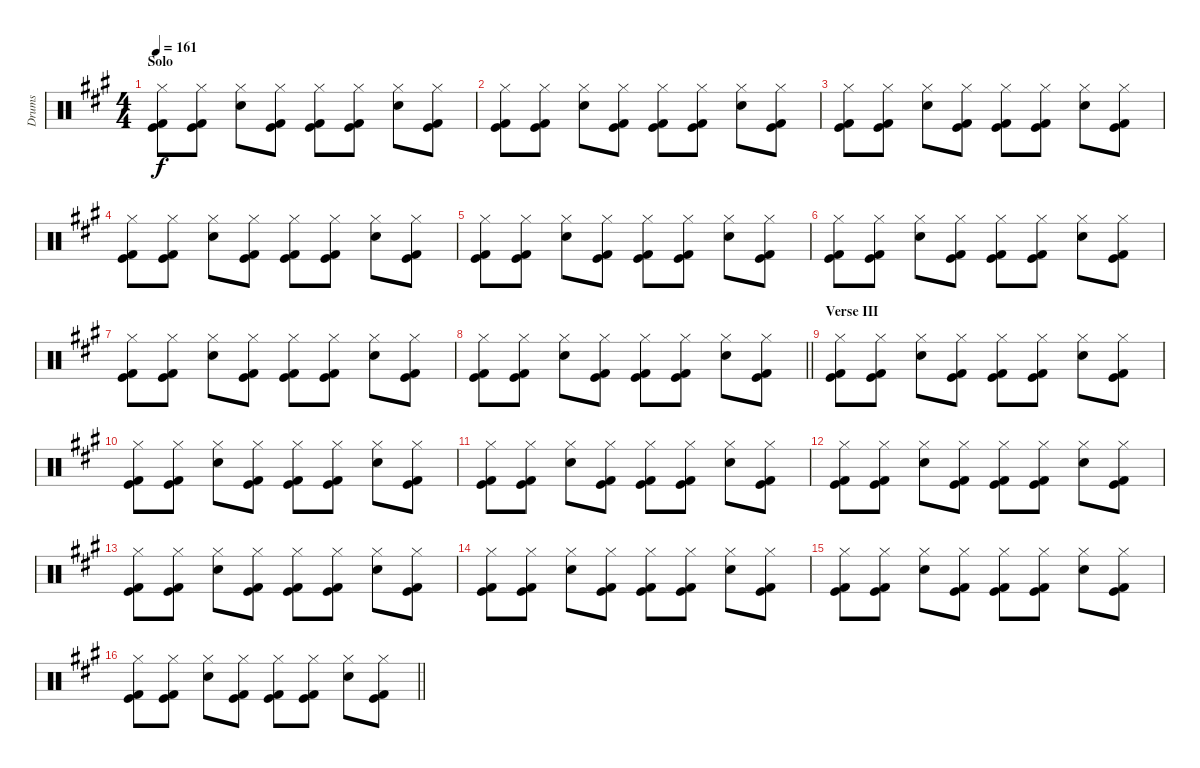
\track ("Drums" "Drums") {instrument percussion}
\staff {score}
\articulation defaults
\ts (4 4)
\section ("" "Solo")
\tempo 161
\clef neutral
\ks a
("Hi-Hat (closed)" "Kick (hit)" "Kick (hit) 2").8{dy f} ("Hi-Hat (closed)" "Kick (hit)" "Kick (hit) 2").8 ("Hi-Hat (closed)" "Snare (hit) 2").8 ("Hi-Hat (closed)" "Kick (hit)" "Kick (hit) 2").8 ("Hi-Hat (closed)" "Kick (hit)" "Kick (hit) 2").8 ("Hi-Hat (closed)" "Kick (hit)" "Kick (hit) 2").8 ("Hi-Hat (closed)" "Snare (hit) 2").8 ("Hi-Hat (closed)" "Kick (hit)" "Kick (hit) 2").8 |
("Hi-Hat (closed)" "Kick (hit)" "Kick (hit) 2").8 ("Hi-Hat (closed)" "Kick (hit)" "Kick (hit) 2").8 ("Hi-Hat (closed)" "Snare (hit) 2").8 ("Hi-Hat (closed)" "Kick (hit)" "Kick (hit) 2").8 ("Hi-Hat (closed)" "Kick (hit)" "Kick (hit) 2").8 ("Hi-Hat (closed)" "Kick (hit)" "Kick (hit) 2").8 ("Hi-Hat (closed)" "Snare (hit) 2").8 ("Hi-Hat (closed)" "Kick (hit)" "Kick (hit) 2").8 |
("Hi-Hat (closed)" "Kick (hit)" "Kick (hit) 2").8 ("Hi-Hat (closed)" "Kick (hit)" "Kick (hit) 2").8 ("Hi-Hat (closed)" "Snare (hit) 2").8 ("Hi-Hat (closed)" "Kick (hit)" "Kick (hit) 2").8 ("Hi-Hat (closed)" "Kick (hit)" "Kick (hit) 2").8 ("Hi-Hat (closed)" "Kick (hit)" "Kick (hit) 2").8 ("Hi-Hat (closed)" "Snare (hit) 2").8 ("Hi-Hat (closed)" "Kick (hit)" "Kick (hit) 2").8 |
("Hi-Hat (closed)" "Kick (hit)" "Kick (hit) 2").8 ("Hi-Hat (closed)" "Kick (hit)" "Kick (hit) 2").8 ("Hi-Hat (closed)" "Snare (hit) 2").8 ("Hi-Hat (closed)" "Kick (hit)" "Kick (hit) 2").8 ("Hi-Hat (closed)" "Kick (hit)" "Kick (hit) 2").8 ("Hi-Hat (closed)" "Kick (hit)" "Kick (hit) 2").8 ("Hi-Hat (closed)" "Snare (hit) 2").8 ("Hi-Hat (closed)" "Kick (hit)" "Kick (hit) 2").8 |
("Hi-Hat (closed)" "Kick (hit)" "Kick (hit) 2").8 ("Hi-Hat (closed)" "Kick (hit)" "Kick (hit) 2").8 ("Hi-Hat (closed)" "Snare (hit) 2").8 ("Hi-Hat (closed)" "Kick (hit)" "Kick (hit) 2").8 ("Hi-Hat (closed)" "Kick (hit)" "Kick (hit) 2").8 ("Hi-Hat (closed)" "Kick (hit)" "Kick (hit) 2").8 ("Hi-Hat (closed)" "Snare (hit) 2").8 ("Hi-Hat (closed)" "Kick (hit)" "Kick (hit) 2").8 |
("Hi-Hat (closed)" "Kick (hit)" "Kick (hit) 2").8 ("Hi-Hat (closed)" "Kick (hit)" "Kick (hit) 2").8 ("Hi-Hat (closed)" "Snare (hit) 2").8 ("Hi-Hat (closed)" "Kick (hit)" "Kick (hit) 2").8 ("Hi-Hat (closed)" "Kick (hit)" "Kick (hit) 2").8 ("Hi-Hat (closed)" "Kick (hit)" "Kick (hit) 2").8 ("Hi-Hat (closed)" "Snare (hit) 2").8 ("Hi-Hat (closed)" "Kick (hit)" "Kick (hit) 2").8 |
("Hi-Hat (closed)" "Kick (hit)" "Kick (hit) 2").8 ("Hi-Hat (closed)" "Kick (hit)" "Kick (hit) 2").8 ("Hi-Hat (closed)" "Snare (hit) 2").8 ("Hi-Hat (closed)" "Kick (hit)" "Kick (hit) 2").8 ("Hi-Hat (closed)" "Kick (hit)" "Kick (hit) 2").8 ("Hi-Hat (closed)" "Kick (hit)" "Kick (hit) 2").8 ("Hi-Hat (closed)" "Snare (hit) 2").8 ("Hi-Hat (closed)" "Kick (hit)" "Kick (hit) 2").8 |
\barLineRight lightlight
("Hi-Hat (closed)" "Kick (hit)" "Kick (hit) 2").8 ("Hi-Hat (closed)" "Kick (hit)" "Kick (hit) 2").8 ("Hi-Hat (closed)" "Snare (hit) 2").8 ("Hi-Hat (closed)" "Kick (hit)" "Kick (hit) 2").8 ("Hi-Hat (closed)" "Kick (hit)" "Kick (hit) 2").8 ("Hi-Hat (closed)" "Kick (hit)" "Kick (hit) 2").8 ("Hi-Hat (closed)" "Snare (hit) 2").8 ("Hi-Hat (closed)" "Kick (hit)" "Kick (hit) 2").8 |
\section ("" "Verse III")
("Hi-Hat (closed)" "Kick (hit)" "Kick (hit) 2").8 ("Hi-Hat (closed)" "Kick (hit)" "Kick (hit) 2").8 ("Hi-Hat (closed)" "Snare (hit) 2").8 ("Hi-Hat (closed)" "Kick (hit)" "Kick (hit) 2").8 ("Hi-Hat (closed)" "Kick (hit)" "Kick (hit) 2").8 ("Hi-Hat (closed)" "Kick (hit)" "Kick (hit) 2").8 ("Hi-Hat (closed)" "Snare (hit) 2").8 ("Hi-Hat (closed)" "Kick (hit)" "Kick (hit) 2").8 |
("Hi-Hat (closed)" "Kick (hit)" "Kick (hit) 2").8 ("Hi-Hat (closed)" "Kick (hit)" "Kick (hit) 2").8 ("Hi-Hat (closed)" "Snare (hit) 2").8 ("Hi-Hat (closed)" "Kick (hit)" "Kick (hit) 2").8 ("Hi-Hat (closed)" "Kick (hit)" "Kick (hit) 2").8 ("Hi-Hat (closed)" "Kick (hit)" "Kick (hit) 2").8 ("Hi-Hat (closed)" "Snare (hit) 2").8 ("Hi-Hat (closed)" "Kick (hit)" "Kick (hit) 2").8 |
("Hi-Hat (closed)" "Kick (hit)" "Kick (hit) 2").8 ("Hi-Hat (closed)" "Kick (hit)" "Kick (hit) 2").8 ("Hi-Hat (closed)" "Snare (hit) 2").8 ("Hi-Hat (closed)" "Kick (hit)" "Kick (hit) 2").8 ("Hi-Hat (closed)" "Kick (hit)" "Kick (hit) 2").8 ("Hi-Hat (closed)" "Kick (hit)" "Kick (hit) 2").8 ("Hi-Hat (closed)" "Snare (hit) 2").8 ("Hi-Hat (closed)" "Kick (hit)" "Kick (hit) 2").8 |
("Hi-Hat (closed)" "Kick (hit)" "Kick (hit) 2").8 ("Hi-Hat (closed)" "Kick (hit)" "Kick (hit) 2").8 ("Hi-Hat (closed)" "Snare (hit) 2").8 ("Hi-Hat (closed)" "Kick (hit)" "Kick (hit) 2").8 ("Hi-Hat (closed)" "Kick (hit)" "Kick (hit) 2").8 ("Hi-Hat (closed)" "Kick (hit)" "Kick (hit) 2").8 ("Hi-Hat (closed)" "Snare (hit) 2").8 ("Hi-Hat (closed)" "Kick (hit)" "Kick (hit) 2").8 |
("Hi-Hat (closed)" "Kick (hit)" "Kick (hit) 2").8 ("Hi-Hat (closed)" "Kick (hit)" "Kick (hit) 2").8 ("Hi-Hat (closed)" "Snare (hit) 2").8 ("Hi-Hat (closed)" "Kick (hit)" "Kick (hit) 2").8 ("Hi-Hat (closed)" "Kick (hit)" "Kick (hit) 2").8 ("Hi-Hat (closed)" "Kick (hit)" "Kick (hit) 2").8 ("Hi-Hat (closed)" "Snare (hit) 2").8 ("Hi-Hat (closed)" "Kick (hit)" "Kick (hit) 2").8 |
("Hi-Hat (closed)" "Kick (hit)" "Kick (hit) 2").8 ("Hi-Hat (closed)" "Kick (hit)" "Kick (hit) 2").8 ("Hi-Hat (closed)" "Snare (hit) 2").8 ("Hi-Hat (closed)" "Kick (hit)" "Kick (hit) 2").8 ("Hi-Hat (closed)" "Kick (hit)" "Kick (hit) 2").8 ("Hi-Hat (closed)" "Kick (hit)" "Kick (hit) 2").8 ("Hi-Hat (closed)" "Snare (hit) 2").8 ("Hi-Hat (closed)" "Kick (hit)" "Kick (hit) 2").8 |
("Hi-Hat (closed)" "Kick (hit)" "Kick (hit) 2").8 ("Hi-Hat (closed)" "Kick (hit)" "Kick (hit) 2").8 ("Hi-Hat (closed)" "Snare (hit) 2").8 ("Hi-Hat (closed)" "Kick (hit)" "Kick (hit) 2").8 ("Hi-Hat (closed)" "Kick (hit)" "Kick (hit) 2").8 ("Hi-Hat (closed)" "Kick (hit)" "Kick (hit) 2").8 ("Hi-Hat (closed)" "Snare (hit) 2").8 ("Hi-Hat (closed)" "Kick (hit)" "Kick (hit) 2").8 |
\barLineRight lightlight
("Hi-Hat (closed)" "Kick (hit)" "Kick (hit) 2").8 ("Hi-Hat (closed)" "Kick (hit)" "Kick (hit) 2").8 ("Hi-Hat (closed)" "Snare (hit) 2").8 ("Hi-Hat (closed)" "Kick (hit)" "Kick (hit) 2").8 ("Hi-Hat (closed)" "Kick (hit)" "Kick (hit) 2").8 ("Hi-Hat (closed)" "Kick (hit)" "Kick (hit) 2").8 ("Hi-Hat (closed)" "Snare (hit) 2").8 ("Hi-Hat (closed)" "Kick (hit)" "Kick (hit) 2").8
